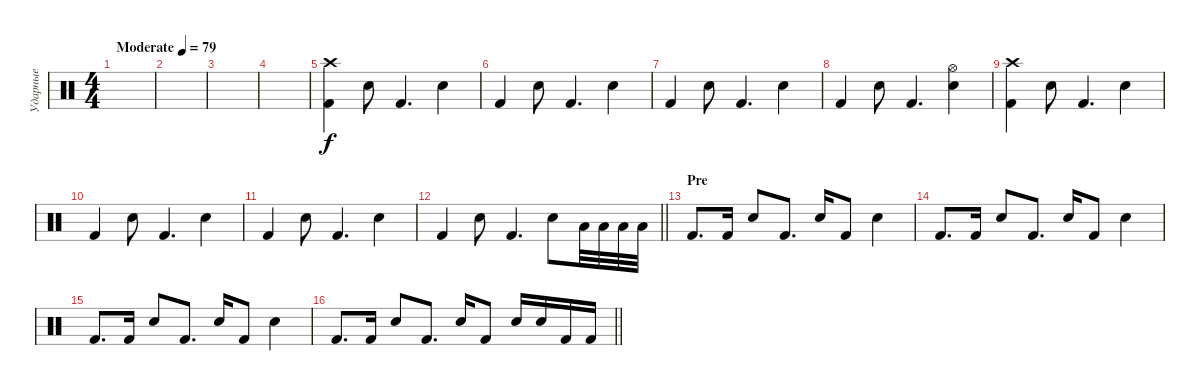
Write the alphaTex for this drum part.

\track ("Ударные" "Ударные") {instrument percussion}
\staff {score}
\articulation defaults
\ts (4 4)
\tempo (79 "Moderate")
\clef neutral
\ks c
|
|
|
|
("Kick (hit) 2" "Crash high (hit)").4 "Snare (hit) 2".8 "Kick (hit) 2".4{d} "Snare (hit) 2".4 |
"Kick (hit) 2".4 "Snare (hit) 2".8 "Kick (hit) 2".4{d} "Snare (hit) 2".4 |
"Kick (hit) 2".4 "Snare (hit) 2".8 "Kick (hit) 2".4{d} "Snare (hit) 2".4 |
"Kick (hit) 2".4 "Snare (hit) 2".8 "Kick (hit) 2".4{d} ("Hi-Hat (open)" "Snare (hit) 2").4 |
("Kick (hit) 2" "Crash high (hit)").4 "Snare (hit) 2".8 "Kick (hit) 2".4{d} "Snare (hit) 2".4 |
"Kick (hit) 2".4 "Snare (hit) 2".8 "Kick (hit) 2".4{d} "Snare (hit) 2".4 |
"Kick (hit) 2".4 "Snare (hit) 2".8 "Kick (hit) 2".4{d} "Snare (hit) 2".4 |
\barLineRight lightlight "Kick (hit) 2".4 "Snare (hit) 2".8 "Kick (hit) 2".4{d} "Snare (hit) 2".8 "Low Floor Tom (hit)".32 "Low Floor Tom (hit)".32 "Low Floor Tom (hit)".32 "Low Floor Tom (hit)".32
|
\section ("" "Pre")
"Kick (hit) 2".8{d} "Kick (hit) 2".16 "Snare (hit) 2".8 "Kick (hit) 2".8{d} "Snare (hit) 2".16 "Kick (hit) 2".8 "Snare (hit) 2".4 |
"Kick (hit) 2".8{d} "Kick (hit) 2".16 "Snare (hit) 2".8 "Kick (hit) 2".8{d} "Snare (hit) 2".16 "Kick (hit) 2".8 "Snare (hit) 2".4 |
"Kick (hit) 2".8{d} "Kick (hit) 2".16 "Snare (hit) 2".8 "Kick (hit) 2".8{d} "Snare (hit) 2".16 "Kick (hit) 2".8 "Snare (hit) 2".4 |
\barLineRight lightlight "Kick (hit) 2".8{d} "Kick (hit) 2".16 "Snare (hit) 2".8 "Kick (hit) 2".8{d} "Snare (hit) 2".16 "Kick (hit) 2".8 "Snare (hit) 2".16 "Snare (hit) 2".16 "Kick (hit) 2".16 "Kick (hit) 2".16
